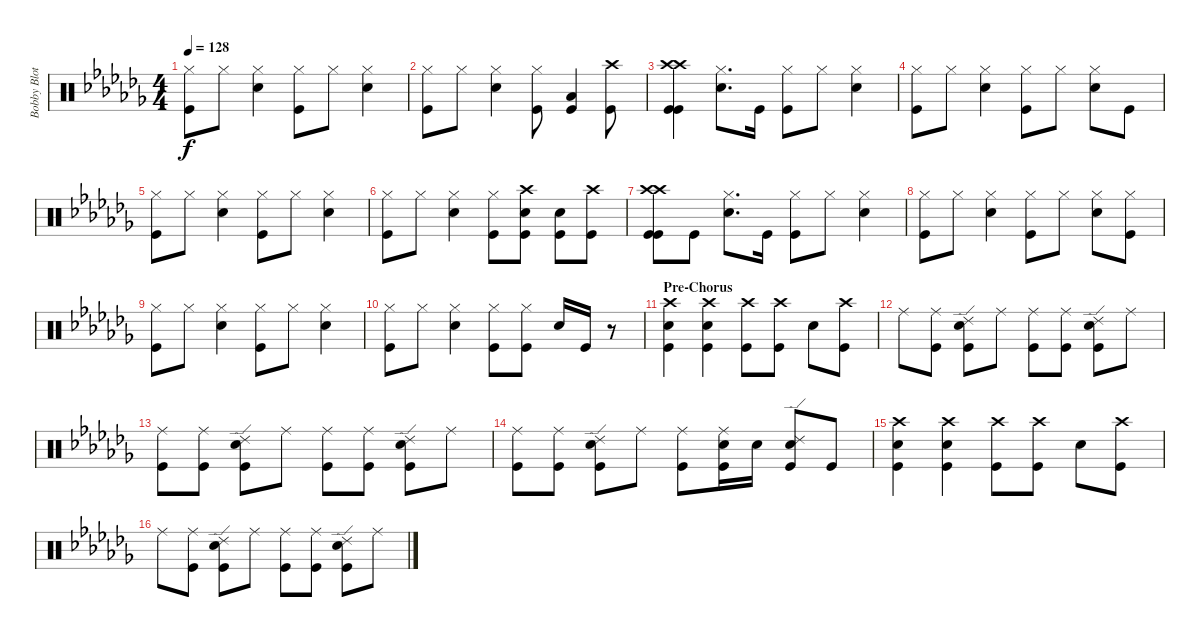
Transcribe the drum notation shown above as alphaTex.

\track ("Bobby Blotzer" "Bobby Blot") {instrument percussion}
\staff {score}
\articulation defaults
\ts (4 4)
\tempo 128
\clef neutral
\ks cb
("Hi-Hat (closed)" "Kick (hit)").8{dy f} "Hi-Hat (closed)".8 ("Hi-Hat (closed)" "Snare (hit) 2").4 ("Kick (hit)" "Hi-Hat (closed)").8 "Hi-Hat (closed)".8 ("Hi-Hat (closed)" "Snare (hit) 2").4 |
("Hi-Hat (closed)" "Kick (hit)").8 "Hi-Hat (closed)".8 ("Snare (hit) 2" "Hi-Hat (closed)").4 ("Hi-Hat (closed)" "Kick (hit)").8 ("Kick (hit)" "Low Tom (hit)").4 ("Crash high (hit)" "Kick (hit)").8 |
("Kick (hit)" "Kick (hit)" "Crash high (hit)" "Crash high (hit)").4 ("Hi-Hat (closed)" "Snare (hit) 2").8{d} "Kick (hit)".16 ("Kick (hit)" "Hi-Hat (closed)").8 "Hi-Hat (closed)".8 ("Snare (hit) 2" "Hi-Hat (closed)").4 |
("Kick (hit)" "Hi-Hat (closed)").8 "Hi-Hat (closed)".8 ("Snare (hit) 2" "Hi-Hat (closed)").4 ("Kick (hit)" "Hi-Hat (closed)").8 "Hi-Hat (closed)".8 ("Snare (hit) 2" "Hi-Hat (closed)").8 "Kick (hit)".8 |
("Kick (hit)" "Hi-Hat (closed)").8 "Hi-Hat (closed)".8 ("Hi-Hat (closed)" "Snare (hit) 2").4 ("Hi-Hat (closed)" "Kick (hit)").8 "Hi-Hat (closed)".8 ("Snare (hit) 2" "Hi-Hat (closed)").4 |
("Hi-Hat (closed)" "Kick (hit)").8 "Hi-Hat (closed)".8 ("Hi-Hat (closed)" "Snare (hit) 2").4 ("Kick (hit)" "Hi-Hat (closed)").8 ("Kick (hit)" "Snare (hit) 2" "Crash high (hit)").8 ("Kick (hit)" "Snare (hit) 2").8 ("Crash high (hit)" "Kick (hit)").8 |
("Kick (hit)" "Crash high (hit)" "Crash high (hit)" "Kick (hit)").8 "Kick (hit)".8 ("Snare (hit) 2" "Hi-Hat (closed)").8{d} "Kick (hit)".16 ("Hi-Hat (closed)" "Kick (hit)").8 "Hi-Hat (closed)".8 ("Snare (hit) 2" "Hi-Hat (closed)").4 |
("Kick (hit)" "Hi-Hat (closed)").8 "Hi-Hat (closed)".8 ("Snare (hit) 2" "Hi-Hat (closed)").4 ("Kick (hit)" "Hi-Hat (closed)").8 "Hi-Hat (closed)".8 ("Snare (hit) 2" "Hi-Hat (closed)").8 ("Hi-Hat (closed)" "Kick (hit)").8 |
("Hi-Hat (closed)" "Kick (hit)").8 "Hi-Hat (closed)".8 ("Hi-Hat (closed)" "Snare (hit) 2").4 ("Kick (hit)" "Hi-Hat (closed)").8 "Hi-Hat (closed)".8 ("Hi-Hat (closed)" "Snare (hit) 2").4 |
("Hi-Hat (closed)" "Kick (hit)").8 "Hi-Hat (closed)".8 ("Hi-Hat (closed)" "Snare (hit) 2").4 ("Hi-Hat (closed)" "Kick (hit)").8 ("Hi-Hat (closed)" "Kick (hit)").8 "Snare (hit) 2".16 "Kick (hit)".16 r.8 |
\section ("" "Pre-Chorus")
("Kick (hit)" "Snare (hit) 2" "Crash high (hit)").4 ("Kick (hit)" "Crash high (hit)" "Snare (hit) 2").4 ("Crash high (hit)" "Kick (hit)").8 ("Kick (hit)" "Crash high (hit)").8 "Snare (hit) 2".8 ("Kick (hit)" "Crash high (hit)").8 |
"Ride (middle)".8 ("Kick (hit)" "Ride (middle)").8 ("Snare (hit) 2" "Kick (hit)" "Ride (edge) 2").8 "Ride (middle)".8 ("Kick (hit)" "Ride (middle)").8 ("Kick (hit)" "Ride (middle)").8 ("Kick (hit)" "Ride (edge) 2" "Snare (hit) 2").8 "Ride (middle)".8 |
("Ride (middle)" "Kick (hit)").8 ("Kick (hit)" "Ride (middle)").8 ("Ride (edge) 2" "Snare (hit) 2" "Kick (hit)").8 "Ride (middle)".8 ("Kick (hit)" "Ride (middle)").8 ("Ride (middle)" "Kick (hit)").8 ("Snare (hit) 2" "Kick (hit)" "Ride (edge) 2").8 "Ride (middle)".8 |
("Ride (middle)" "Kick (hit)").8 ("Ride (middle)" "Kick (hit)").8 ("Ride (edge) 2" "Kick (hit)" "Snare (hit) 2").8 "Ride (middle)".8 ("Kick (hit)" "Ride (middle)").8 ("Kick (hit)" "Ride (middle)" "Snare (hit) 2").16 "Snare (hit) 2".16 ("Ride (edge) 2" "Snare (hit) 2" "Kick (hit)").8 "Kick (hit)".8 |
("Kick (hit)" "Crash high (hit)" "Snare (hit) 2").4 ("Snare (hit) 2" "Kick (hit)" "Crash high (hit)").4 ("Kick (hit)" "Crash high (hit)").8 ("Crash high (hit)" "Kick (hit)").8 "Snare (hit) 2".8 ("Kick (hit)" "Crash high (hit)").8 |
"Ride (middle)".8 ("Ride (middle)" "Kick (hit)").8 ("Kick (hit)" "Snare (hit) 2" "Ride (edge) 2").8 "Ride (middle)".8 ("Ride (middle)" "Kick (hit)").8 ("Ride (middle)" "Kick (hit)").8 ("Kick (hit)" "Ride (edge) 2" "Snare (hit) 2").8 "Ride (middle)".8
